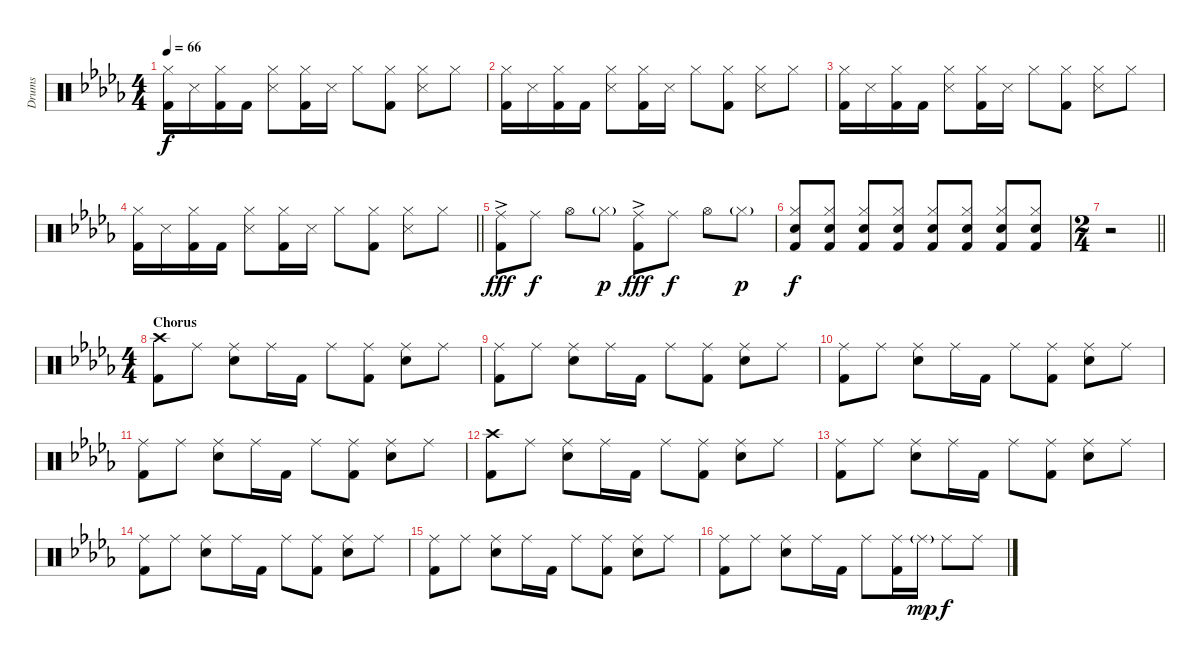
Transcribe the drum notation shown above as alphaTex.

\track ("Drums" "Drums") {instrument percussion}
\staff {score}
\articulation defaults
\ts (4 4)
\tempo 66
\clef neutral
\ks db
("Kick (hit) 2" "Hi-Hat (closed)").16{dy f} "Snare (side stick) 3".16 ("Kick (hit) 2" "Hi-Hat (closed)").16 "Kick (hit) 2".16 ("Snare (side stick) 3" "Hi-Hat (closed)").8 ("Kick (hit) 2" "Hi-Hat (closed)").16 "Snare (side stick) 3".16 "Hi-Hat (closed)".8 ("Kick (hit) 2" "Hi-Hat (closed)").8 ("Snare (side stick) 3" "Hi-Hat (closed)").8 "Hi-Hat (closed)".8 |
("Kick (hit) 2" "Hi-Hat (closed)").16 "Snare (side stick) 3".16 ("Kick (hit) 2" "Hi-Hat (closed)").16 "Kick (hit) 2".16 ("Snare (side stick) 3" "Hi-Hat (closed)").8 ("Kick (hit) 2" "Hi-Hat (closed)").16 "Snare (side stick) 3".16 "Hi-Hat (closed)".8 ("Kick (hit) 2" "Hi-Hat (closed)").8 ("Snare (side stick) 3" "Hi-Hat (closed)").8 "Hi-Hat (closed)".8 |
("Kick (hit) 2" "Hi-Hat (closed)").16 "Snare (side stick) 3".16 ("Kick (hit) 2" "Hi-Hat (closed)").16 "Kick (hit) 2".16 ("Snare (side stick) 3" "Hi-Hat (closed)").8 ("Kick (hit) 2" "Hi-Hat (closed)").16 "Snare (side stick) 3".16 "Hi-Hat (closed)".8 ("Kick (hit) 2" "Hi-Hat (closed)").8 ("Snare (side stick) 3" "Hi-Hat (closed)").8 "Hi-Hat (closed)".8 |
\barLineRight lightlight
("Kick (hit) 2" "Hi-Hat (closed)").16 "Snare (side stick) 3".16 ("Kick (hit) 2" "Hi-Hat (closed)").16 "Kick (hit) 2".16 ("Snare (side stick) 3" "Hi-Hat (closed)").8 ("Kick (hit) 2" "Hi-Hat (closed)").16 "Snare (side stick) 3".16 "Hi-Hat (closed)".8 ("Kick (hit) 2" "Hi-Hat (closed)").8 ("Snare (side stick) 3" "Hi-Hat (closed)").8 "Hi-Hat (closed)".8 |
\section ("" "")
("Kick (hit) 2" "Ride (middle)"{ac}).8{dy fff} "Ride (middle)".8{dy f} "Hi-Hat (open)".8 "Hi-Hat (closed)"{g}.8{dy p} ("Kick (hit) 2" "Ride (middle)"{ac}).8{dy fff} "Ride (middle)".8{dy f} "Hi-Hat (open)".8 "Hi-Hat (closed)"{g}.8{dy p} |
("Kick (hit) 2" "Snare (hit) 2" "Hi-Hat (closed)").8{dy f} ("Kick (hit) 2" "Snare (hit) 2" "Hi-Hat (closed)").8 ("Kick (hit) 2" "Snare (hit) 2" "Hi-Hat (closed)").8 ("Kick (hit) 2" "Snare (hit) 2" "Hi-Hat (closed)").8 ("Kick (hit) 2" "Snare (hit) 2" "Hi-Hat (closed)").8 ("Kick (hit) 2" "Snare (hit) 2" "Hi-Hat (closed)").8 ("Kick (hit) 2" "Snare (hit) 2" "Hi-Hat (closed)").8 ("Kick (hit) 2" "Snare (hit) 2" "Hi-Hat (closed)").8 |
\ts (2 4)
\barLineRight lightlight
r.2 |
\ts (4 4)
\section ("" "Chorus")
("Kick (hit) 2" "Crash high (hit)").8 "Ride (middle)".8 ("Ride (middle)" "Snare (hit) 2").8 "Ride (middle)".16 "Kick (hit) 2".16 "Ride (middle)".8 ("Kick (hit) 2" "Ride (middle)").8 ("Ride (middle)" "Snare (hit) 2").8 "Ride (middle)".8 |
("Kick (hit) 2" "Ride (middle)").8 "Ride (middle)".8 ("Ride (middle)" "Snare (hit) 2").8 "Ride (middle)".16 "Kick (hit) 2".16 "Ride (middle)".8 ("Kick (hit) 2" "Ride (middle)").8 ("Ride (middle)" "Snare (hit) 2").8 "Ride (middle)".8 |
("Kick (hit) 2" "Ride (middle)").8 "Ride (middle)".8 ("Ride (middle)" "Snare (hit) 2").8 "Ride (middle)".16 "Kick (hit) 2".16 "Ride (middle)".8 ("Kick (hit) 2" "Ride (middle)").8 ("Ride (middle)" "Snare (hit) 2").8 "Ride (middle)".8 |
("Kick (hit) 2" "Ride (middle)").8 "Ride (middle)".8 ("Ride (middle)" "Snare (hit) 2").8 "Ride (middle)".16 "Kick (hit) 2".16 "Ride (middle)".8 ("Kick (hit) 2" "Ride (middle)").8 ("Ride (middle)" "Snare (hit) 2").8 "Ride (middle)".8 |
("Kick (hit) 2" "Crash high (hit)").8 "Ride (middle)".8 ("Ride (middle)" "Snare (hit) 2").8 "Ride (middle)".16 "Kick (hit) 2".16 "Ride (middle)".8 ("Kick (hit) 2" "Ride (middle)").8 ("Ride (middle)" "Snare (hit) 2").8 "Ride (middle)".8 |
("Kick (hit) 2" "Ride (middle)").8 "Ride (middle)".8 ("Ride (middle)" "Snare (hit) 2").8 "Ride (middle)".16 "Kick (hit) 2".16 "Ride (middle)".8 ("Kick (hit) 2" "Ride (middle)").8 ("Ride (middle)" "Snare (hit) 2").8 "Ride (middle)".8 |
("Kick (hit) 2" "Ride (middle)").8 "Ride (middle)".8 ("Ride (middle)" "Snare (hit) 2").8 "Ride (middle)".16 "Kick (hit) 2".16 "Ride (middle)".8 ("Kick (hit) 2" "Ride (middle)").8 ("Ride (middle)" "Snare (hit) 2").8 "Ride (middle)".8 |
("Kick (hit) 2" "Ride (middle)").8 "Ride (middle)".8 ("Ride (middle)" "Snare (hit) 2").8 "Ride (middle)".16 "Kick (hit) 2".16 "Ride (middle)".8 ("Kick (hit) 2" "Ride (middle)").8 ("Ride (middle)" "Snare (hit) 2").8 "Ride (middle)".8 |
("Kick (hit) 2" "Ride (middle)").8 "Ride (middle)".8 ("Ride (middle)" "Snare (hit) 2").8 "Ride (middle)".16 "Kick (hit) 2".16 "Ride (middle)".8 ("Kick (hit) 2" "Ride (middle)").16 "Ride (middle)"{g}.16{dy mp} "Ride (middle)".8{dy f} "Ride (middle)".8
